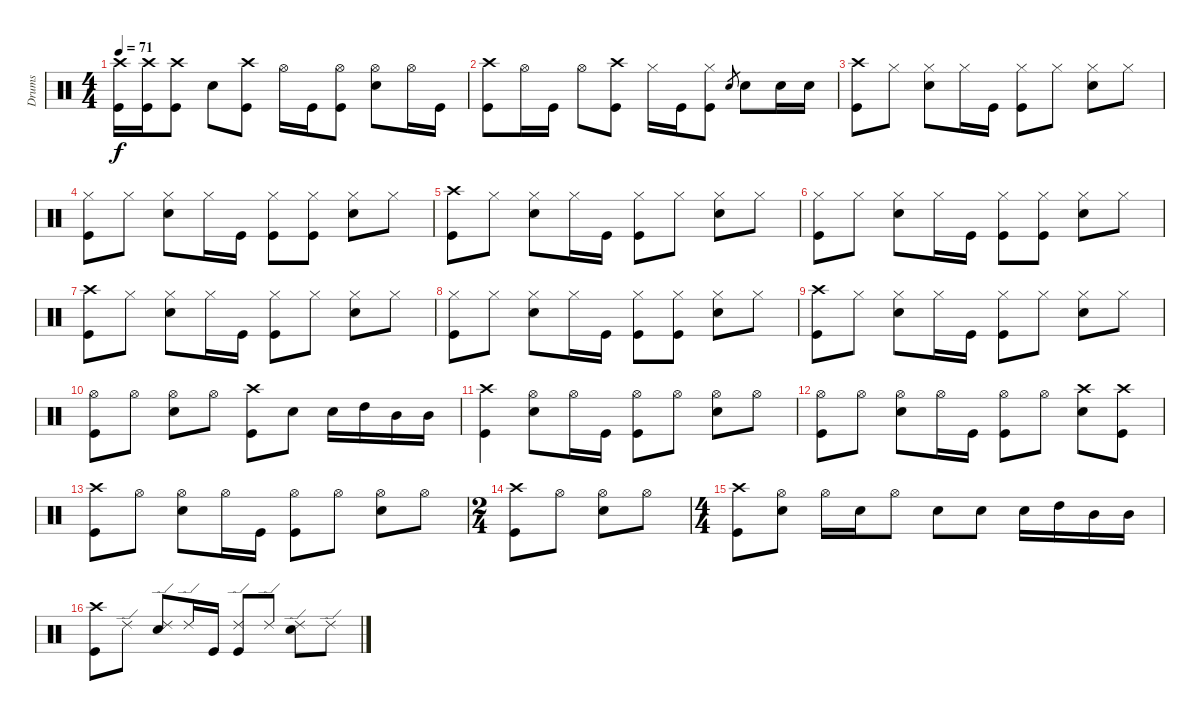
\track ("Drums" "Drums") {instrument percussion}
\staff {score}
\articulation defaults
\ts (4 4)
\tempo 71
\clef neutral
\ks c
("Crash high (hit)" "Kick (hit)").16{dy f} ("Crash high (hit)" "Kick (hit)").16 ("Crash high (hit)" "Kick (hit)").8 "Snare (hit) 2".8 ("Crash high (hit)" "Kick (hit)").8 "Hi-Hat (open)".16 "Kick (hit)".16 ("Hi-Hat (open)" "Kick (hit)").8 ("Hi-Hat (open)" "Snare (hit) 2").8 "Hi-Hat (open)".16 "Kick (hit)".16 |
("Crash high (hit)" "Kick (hit)").8 "Hi-Hat (open)".16 "Kick (hit)".16 "Hi-Hat (open)".8 ("Crash high (hit)" "Kick (hit)").8 "Hi-Hat (closed)".16 "Kick (hit)".16 ("Hi-Hat (closed)" "Kick (hit)").8 "Snare (hit) 2".8{gr} "Snare (hit) 2".8 "Snare (hit) 2".16 "Snare (hit) 2".16 |
("Crash high (hit)" "Kick (hit)").8 "Hi-Hat (closed)".8 ("Hi-Hat (closed)" "Snare (hit) 2").8 "Hi-Hat (closed)".16 "Kick (hit)".16 ("Hi-Hat (closed)" "Kick (hit)").8 "Hi-Hat (closed)".8 ("Hi-Hat (closed)" "Snare (hit) 2").8 "Hi-Hat (closed)".8 |
("Hi-Hat (closed)" "Kick (hit)").8 "Hi-Hat (closed)".8 ("Hi-Hat (closed)" "Snare (hit) 2").8 "Hi-Hat (closed)".16 "Kick (hit)".16 ("Hi-Hat (closed)" "Kick (hit)").8 ("Hi-Hat (closed)" "Kick (hit)").8 ("Hi-Hat (closed)" "Snare (hit) 2").8 "Hi-Hat (closed)".8 |
("Crash high (hit)" "Kick (hit)").8 "Hi-Hat (closed)".8 ("Hi-Hat (closed)" "Snare (hit) 2").8 "Hi-Hat (closed)".16 "Kick (hit)".16 ("Hi-Hat (closed)" "Kick (hit)").8 "Hi-Hat (closed)".8 ("Hi-Hat (closed)" "Snare (hit) 2").8 "Hi-Hat (closed)".8 |
("Hi-Hat (closed)" "Kick (hit)").8 "Hi-Hat (closed)".8 ("Hi-Hat (closed)" "Snare (hit) 2").8 "Hi-Hat (closed)".16 "Kick (hit)".16 ("Hi-Hat (closed)" "Kick (hit)").8 ("Hi-Hat (closed)" "Kick (hit)").8 ("Hi-Hat (closed)" "Snare (hit) 2").8 "Hi-Hat (closed)".8 |
("Crash high (hit)" "Kick (hit)").8 "Hi-Hat (closed)".8 ("Hi-Hat (closed)" "Snare (hit) 2").8 "Hi-Hat (closed)".16 "Kick (hit)".16 ("Hi-Hat (closed)" "Kick (hit)").8 "Hi-Hat (closed)".8 ("Hi-Hat (closed)" "Snare (hit) 2").8 "Hi-Hat (closed)".8 |
("Hi-Hat (closed)" "Kick (hit)").8 "Hi-Hat (closed)".8 ("Hi-Hat (closed)" "Snare (hit) 2").8 "Hi-Hat (closed)".16 "Kick (hit)".16 ("Hi-Hat (closed)" "Kick (hit)").8 ("Hi-Hat (closed)" "Kick (hit)").8 ("Hi-Hat (closed)" "Snare (hit) 2").8 "Hi-Hat (closed)".8 |
("Crash high (hit)" "Kick (hit)").8 "Hi-Hat (closed)".8 ("Hi-Hat (closed)" "Snare (hit) 2").8 "Hi-Hat (closed)".16 "Kick (hit)".16 ("Hi-Hat (closed)" "Kick (hit)").8 "Hi-Hat (closed)".8 ("Hi-Hat (closed)" "Snare (hit) 2").8 "Hi-Hat (closed)".8 |
("Hi-Hat (open)" "Kick (hit)").8 "Hi-Hat (open)".8 ("Hi-Hat (open)" "Snare (hit) 2").8 "Hi-Hat (open)".8 ("Crash high (hit)" "Kick (hit)").8 "Snare (hit) 2".8 "Snare (hit) 2".16 "High Tom (hit)".16 "Mid Tom (hit)".16 "Mid Tom (hit)".16 |
("Crash high (hit)" "Kick (hit)").4 ("Hi-Hat (open)" "Snare (hit) 2").8 "Hi-Hat (open)".16 "Kick (hit)".16 ("Hi-Hat (open)" "Kick (hit)").8 "Hi-Hat (open)".8 ("Hi-Hat (open)" "Snare (hit) 2").8 "Hi-Hat (open)".8 |
("Hi-Hat (open)" "Kick (hit)").8 "Hi-Hat (open)".8 ("Hi-Hat (open)" "Snare (hit) 2").8 "Hi-Hat (open)".16 "Kick (hit)".16 ("Hi-Hat (open)" "Kick (hit)").8 "Hi-Hat (open)".8 ("Crash high (hit)" "Snare (hit) 2").8 ("Crash high (hit)" "Kick (hit)").8 |
("Crash high (hit)" "Kick (hit)").8 "Hi-Hat (open)".8 ("Hi-Hat (open)" "Snare (hit) 2").8 "Hi-Hat (open)".16 "Kick (hit)".16 ("Hi-Hat (open)" "Kick (hit)").8 "Hi-Hat (open)".8 ("Hi-Hat (open)" "Snare (hit) 2").8 "Hi-Hat (open)".8 |
\ts (2 4)
("Crash high (hit)" "Kick (hit)").8 "Hi-Hat (open)".8 ("Hi-Hat (open)" "Snare (hit) 2").8 "Hi-Hat (open)".8 |
\ts (4 4)
("Crash high (hit)" "Kick (hit)").8 ("Hi-Hat (open)" "Snare (hit) 2").8 "Hi-Hat (open)".16 "Snare (hit) 2".16 "Hi-Hat (open)".8 "Snare (hit) 2".8 "Snare (hit) 2".8 "Snare (hit) 2".16 "High Tom (hit)".16 "Mid Tom (hit)".16 "Mid Tom (hit)".16 |
("Crash high (hit)" "Kick (hit)").8 "Ride (edge) 2".8 ("Ride (edge) 2" "Snare (hit) 2").8 "Ride (edge) 2".16 "Kick (hit)".16 ("Ride (edge) 2" "Kick (hit)").8 "Ride (edge) 2".8 ("Ride (edge) 2" "Snare (hit) 2").8 "Ride (edge) 2".8
